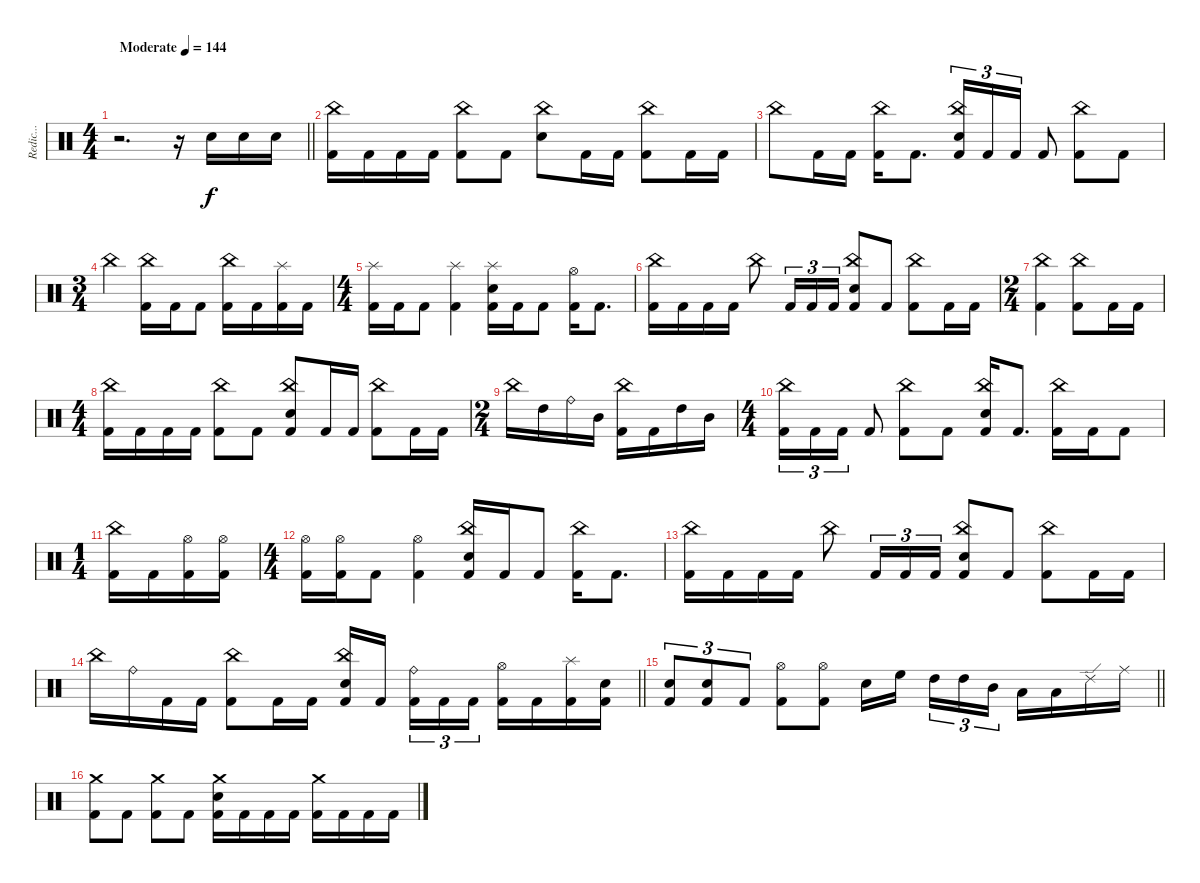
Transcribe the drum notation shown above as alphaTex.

\track ("Redic..." "Redic...") {instrument percussion}
\staff {score}
\articulation defaults
\ts (4 4)
\section ("" "")
\tempo (144 "Moderate")
\clef neutral
\barLineRight lightlight
\ks c
r.2{d dy f} r.16 "Electric Snare (hit)".16 "Electric Snare (hit)".16 "Electric Snare (hit)".16 |
\section ("" "")
("China (hit)" "Kick (hit) 2").16 "Kick (hit) 2".16 "Kick (hit) 2".16 "Kick (hit) 2".16 ("China (hit)" "Kick (hit) 2").8 "Kick (hit) 2".8 ("China (hit)" "Electric Snare (hit)").8 "Kick (hit) 2".16 "Kick (hit) 2".16 ("China (hit)" "Kick (hit) 2").8 "Kick (hit) 2".16 "Kick (hit) 2".16 |
"China (hit)".8 "Kick (hit) 2".16 "Kick (hit) 2".16 ("China (hit)" "Kick (hit) 2").16 "Kick (hit) 2".8{d} ("China (hit)" "Electric Snare (hit)" "Kick (hit) 2").16{tu (3 2)} "Kick (hit) 2".16{tu (3 2)} "Kick (hit) 2".16{tu (3 2)} "Kick (hit) 2".8 ("China (hit)" "Kick (hit) 2").8 "Kick (hit) 2".8 |
\ts (3 4)
"China (hit)".4 ("China (hit)" "Kick (hit) 2").16 "Kick (hit) 2".16 "Kick (hit) 2".8 ("China (hit)" "Kick (hit) 2").16 "Kick (hit) 2".16 ("Splash (hit)" "Kick (hit) 2").16 "Kick (hit) 2".16 |
\ts (4 4)
("Splash (hit)" "Kick (hit) 2").16 "Kick (hit) 2".16 "Kick (hit) 2".8 ("Splash (hit)" "Kick (hit) 2").4 ("Splash (hit)" "Electric Snare (hit)" "Kick (hit) 2").16 "Kick (hit) 2".16 "Kick (hit) 2".8 ("Hi-Hat (open)" "Kick (hit) 2").16 "Kick (hit) 2".8{d} |
("China (hit)" "Kick (hit) 2").16 "Kick (hit) 2".16 "Kick (hit) 2".16 "Kick (hit) 2".16 "China (hit)".8 "Kick (hit) 2".16{tu (3 2)} "Kick (hit) 2".16{tu (3 2)} "Kick (hit) 2".16{tu (3 2)} ("China (hit)" "Electric Snare (hit)" "Kick (hit) 2").8 "Kick (hit) 2".8 ("China (hit)" "Kick (hit) 2").8 "Kick (hit) 2".16 "Kick (hit) 2".16 |
\ts (2 4)
("China (hit)" "Kick (hit) 2").4 ("China (hit)" "Kick (hit) 2").8 "Kick (hit) 2".16 "Kick (hit) 2".16 |
\ts (4 4)
("China (hit)" "Kick (hit) 2").16 "Kick (hit) 2".16 "Kick (hit) 2".16 "Kick (hit) 2".16 ("China (hit)" "Kick (hit) 2").8 "Kick (hit) 2".8 ("China (hit)" "Electric Snare (hit)" "Kick (hit) 2").8 "Kick (hit) 2".16 "Kick (hit) 2".16 ("China (hit)" "Kick (hit) 2").8 "Kick (hit) 2".16 "Kick (hit) 2".16 |
\ts (2 4)
"China (hit)".16 "High Tom (hit)".16 "Ride (bell)".16 "Mid Tom (hit)".16 ("China (hit)" "Kick (hit) 2").16 "Kick (hit) 2".16 "High Tom (hit)".16 "Mid Tom (hit)".16 |
\ts (4 4)
("China (hit)" "Kick (hit) 2").16{tu (3 2)} "Kick (hit) 2".16{tu (3 2)} "Kick (hit) 2".16{tu (3 2)} "Kick (hit) 2".8 ("China (hit)" "Kick (hit) 2").8 "Kick (hit) 2".8 ("China (hit)" "Electric Snare (hit)" "Kick (hit) 2").16 "Kick (hit) 2".8{d} ("China (hit)" "Kick (hit) 2").16 "Kick (hit) 2".16 "Kick (hit) 2".8 |
\ts (1 4)
("China (hit)" "Kick (hit) 2").16 "Kick (hit) 2".16 ("Hi-Hat (open)" "Kick (hit) 2").16 ("Hi-Hat (open)" "Kick (hit) 2").16 |
\ts (4 4)
("Hi-Hat (open)" "Kick (hit) 2").16 ("Hi-Hat (open)" "Kick (hit) 2").16 "Kick (hit) 2".8 ("Hi-Hat (open)" "Kick (hit) 2").4 ("China (hit)" "Electric Snare (hit)" "Kick (hit) 2").16 "Kick (hit) 2".16 "Kick (hit) 2".8 ("China (hit)" "Kick (hit) 2").16 "Kick (hit) 2".8{d} |
("China (hit)" "Kick (hit) 2").16 "Kick (hit) 2".16 "Kick (hit) 2".16 "Kick (hit) 2".16 "China (hit)".8 "Kick (hit) 2".16{tu (3 2)} "Kick (hit) 2".16{tu (3 2)} "Kick (hit) 2".16{tu (3 2)} ("China (hit)" "Electric Snare (hit)" "Kick (hit) 2").8 "Kick (hit) 2".8 ("China (hit)" "Kick (hit) 2").8 "Kick (hit) 2".16 "Kick (hit) 2".16 |
\barLineRight lightlight "China (hit)".16 "Ride (bell)".16 "Kick (hit) 2".16 "Kick (hit) 2".16
("China (hit)" "Kick (hit) 2").8 "Kick (hit) 2".16 "Kick (hit) 2".16 ("China (hit)" "Electric Snare (hit)" "Kick (hit) 2").16 "Kick (hit) 2".16{beam splitsecondary} ("Ride (bell)" "Kick (hit) 2").16{tu (3 2)} "Kick (hit) 2".16{tu (3 2)} "Kick (hit) 2".16{tu (3 2)} ("Hi-Hat (open)" "Kick (hit) 2").16 "Kick (hit) 2".16 ("Splash (hit)" "Kick (hit) 2").16 ("Electric Snare (hit)" "Kick (hit) 2").16 |
\section ("" "")
\barLineRight lightlight
("Electric Snare (hit)" "Kick (hit) 2").8{tu (3 2)} ("Electric Snare (hit)" "Kick (hit) 2").8{tu (3 2)} "Kick (hit) 2".8{tu (3 2)} ("Hi-Hat (open)" "Kick (hit) 2").8 ("Hi-Hat (open)" "Kick (hit) 2").8 "Electric Snare (hit)".16 "High Floor Tom (hit)".16{beam splitsecondary} "High Tom (hit)".16{tu (3 2)} "High Tom (hit)".16{tu (3 2)} "Mid Tom (hit)".16{tu (3 2)} "Low Tom (hit)".16 "Low Tom (hit)".16 "Ride (edge) 2".16 "Ride (middle)".16 |
\section ("" "")
("Crash medium (hit)" "Kick (hit) 2").8 "Kick (hit) 2".8 ("Crash medium (hit)" "Kick (hit) 2").8 "Kick (hit) 2".8 ("Crash medium (hit)" "Electric Snare (hit)" "Kick (hit) 2").16 "Kick (hit) 2".16 "Kick (hit) 2".16 "Kick (hit) 2".16 ("Crash medium (hit)" "Kick (hit) 2").16 "Kick (hit) 2".16 "Kick (hit) 2".16 "Kick (hit) 2".16
